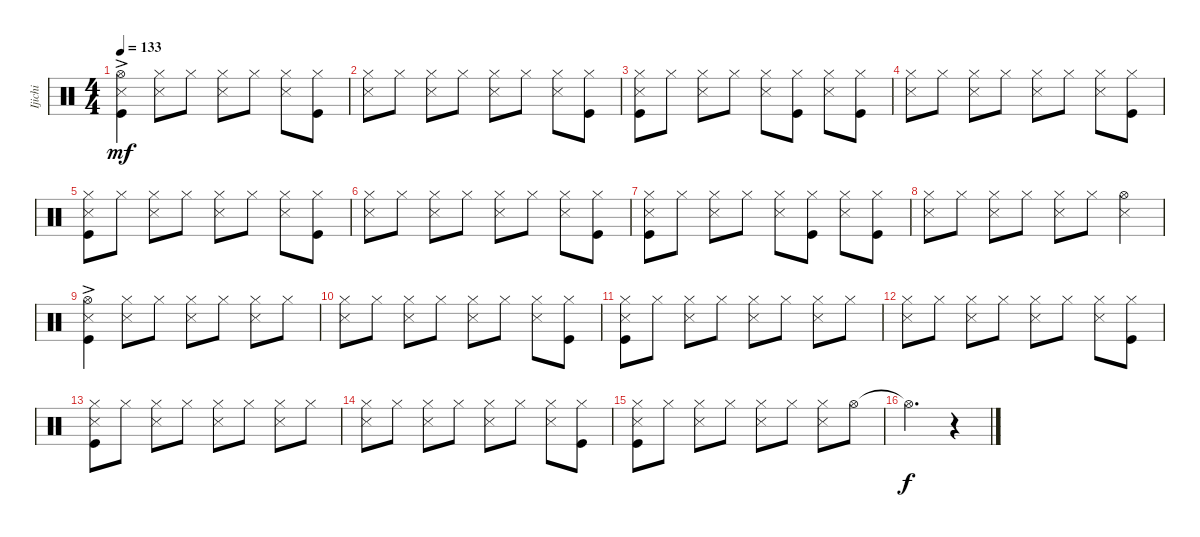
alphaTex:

\track ("Ijichi" "Ijichi") {instrument percussion}
\staff {score}
\articulation defaults
\ts (4 4)
\tempo 133
\clef neutral
\ks c
("Hi-Hat (open)"{ac} "Snare (side stick) 3" "Kick (hit)").4{dy mf} ("Hi-Hat (closed)" "Snare (side stick) 3").8 "Hi-Hat (closed)".8 ("Hi-Hat (closed)" "Snare (side stick) 3").8 "Hi-Hat (closed)".8 ("Hi-Hat (closed)" "Snare (side stick) 3").8 ("Hi-Hat (closed)" "Kick (hit)").8 |
("Hi-Hat (closed)" "Snare (side stick) 3").8 "Hi-Hat (closed)".8 ("Hi-Hat (closed)" "Snare (side stick) 3").8 "Hi-Hat (closed)".8 ("Hi-Hat (closed)" "Snare (side stick) 3").8 "Hi-Hat (closed)".8 ("Hi-Hat (closed)" "Snare (side stick) 3").8 ("Hi-Hat (closed)" "Kick (hit)").8 |
("Hi-Hat (closed)" "Snare (side stick) 3" "Kick (hit)").8 "Hi-Hat (closed)".8 ("Hi-Hat (closed)" "Snare (side stick) 3").8 "Hi-Hat (closed)".8 ("Hi-Hat (closed)" "Snare (side stick) 3").8 ("Hi-Hat (closed)" "Kick (hit)").8 ("Hi-Hat (closed)" "Snare (side stick) 3").8 ("Hi-Hat (closed)" "Kick (hit)").8 |
("Hi-Hat (closed)" "Snare (side stick) 3").8 "Hi-Hat (closed)".8 ("Hi-Hat (closed)" "Snare (side stick) 3").8 "Hi-Hat (closed)".8 ("Hi-Hat (closed)" "Snare (side stick) 3").8 "Hi-Hat (closed)".8 ("Hi-Hat (closed)" "Snare (side stick) 3").8 ("Hi-Hat (closed)" "Kick (hit)").8 |
("Hi-Hat (closed)" "Snare (side stick) 3" "Kick (hit)").8 "Hi-Hat (closed)".8 ("Hi-Hat (closed)" "Snare (side stick) 3").8 "Hi-Hat (closed)".8 ("Hi-Hat (closed)" "Snare (side stick) 3").8 "Hi-Hat (closed)".8 ("Hi-Hat (closed)" "Snare (side stick) 3").8 ("Hi-Hat (closed)" "Kick (hit)").8 |
("Hi-Hat (closed)" "Snare (side stick) 3").8 "Hi-Hat (closed)".8 ("Hi-Hat (closed)" "Snare (side stick) 3").8 "Hi-Hat (closed)".8 ("Hi-Hat (closed)" "Snare (side stick) 3").8 "Hi-Hat (closed)".8 ("Hi-Hat (closed)" "Snare (side stick) 3").8 ("Hi-Hat (closed)" "Kick (hit)").8 |
("Hi-Hat (closed)" "Snare (side stick) 3" "Kick (hit)").8 "Hi-Hat (closed)".8 ("Hi-Hat (closed)" "Snare (side stick) 3").8 "Hi-Hat (closed)".8 ("Hi-Hat (closed)" "Snare (side stick) 3").8 ("Hi-Hat (closed)" "Kick (hit)").8 ("Hi-Hat (closed)" "Snare (side stick) 3").8 ("Hi-Hat (closed)" "Kick (hit)").8 |
("Hi-Hat (closed)" "Snare (side stick) 3").8 "Hi-Hat (closed)".8 ("Hi-Hat (closed)" "Snare (side stick) 3").8 "Hi-Hat (closed)".8 ("Hi-Hat (closed)" "Snare (side stick) 3").8 "Hi-Hat (closed)".8 ("Hi-Hat (open)" "Snare (side stick) 3").4 |
("Hi-Hat (open)"{ac} "Snare (side stick) 3" "Kick (hit)").4 ("Hi-Hat (closed)" "Snare (side stick) 3").8 "Hi-Hat (closed)".8 ("Hi-Hat (closed)" "Snare (side stick) 3").8 "Hi-Hat (closed)".8 ("Hi-Hat (closed)" "Snare (side stick) 3").8 "Hi-Hat (closed)".8 |
("Hi-Hat (closed)" "Snare (side stick) 3").8 "Hi-Hat (closed)".8 ("Hi-Hat (closed)" "Snare (side stick) 3").8 "Hi-Hat (closed)".8 ("Hi-Hat (closed)" "Snare (side stick) 3").8 "Hi-Hat (closed)".8 ("Hi-Hat (closed)" "Snare (side stick) 3").8 ("Hi-Hat (closed)" "Kick (hit)").8 |
("Hi-Hat (closed)" "Snare (side stick) 3" "Kick (hit)").8 "Hi-Hat (closed)".8 ("Hi-Hat (closed)" "Snare (side stick) 3").8 "Hi-Hat (closed)".8 ("Hi-Hat (closed)" "Snare (side stick) 3").8 "Hi-Hat (closed)".8 ("Hi-Hat (closed)" "Snare (side stick) 3").8 "Hi-Hat (closed)".8 |
("Hi-Hat (closed)" "Snare (side stick) 3").8 "Hi-Hat (closed)".8 ("Hi-Hat (closed)" "Snare (side stick) 3").8 "Hi-Hat (closed)".8 ("Hi-Hat (closed)" "Snare (side stick) 3").8 "Hi-Hat (closed)".8 ("Hi-Hat (closed)" "Snare (side stick) 3").8 ("Hi-Hat (closed)" "Kick (hit)").8 |
("Hi-Hat (closed)" "Snare (side stick) 3" "Kick (hit)").8 "Hi-Hat (closed)".8 ("Hi-Hat (closed)" "Snare (side stick) 3").8 "Hi-Hat (closed)".8 ("Hi-Hat (closed)" "Snare (side stick) 3").8 "Hi-Hat (closed)".8 ("Hi-Hat (closed)" "Snare (side stick) 3").8 "Hi-Hat (closed)".8 |
("Hi-Hat (closed)" "Snare (side stick) 3").8 "Hi-Hat (closed)".8 ("Hi-Hat (closed)" "Snare (side stick) 3").8 "Hi-Hat (closed)".8 ("Hi-Hat (closed)" "Snare (side stick) 3").8 "Hi-Hat (closed)".8 ("Hi-Hat (closed)" "Snare (side stick) 3").8 ("Hi-Hat (closed)" "Kick (hit)").8 |
("Hi-Hat (closed)" "Snare (side stick) 3" "Kick (hit)").8 "Hi-Hat (closed)".8 ("Hi-Hat (closed)" "Snare (side stick) 3").8 "Hi-Hat (closed)".8 ("Hi-Hat (closed)" "Snare (side stick) 3").8 "Hi-Hat (closed)".8 ("Hi-Hat (closed)" "Snare (side stick) 3").8 "Hi-Hat (open)".8 |
"Hi-Hat (open)"{t}.2{d dy f} r.4
